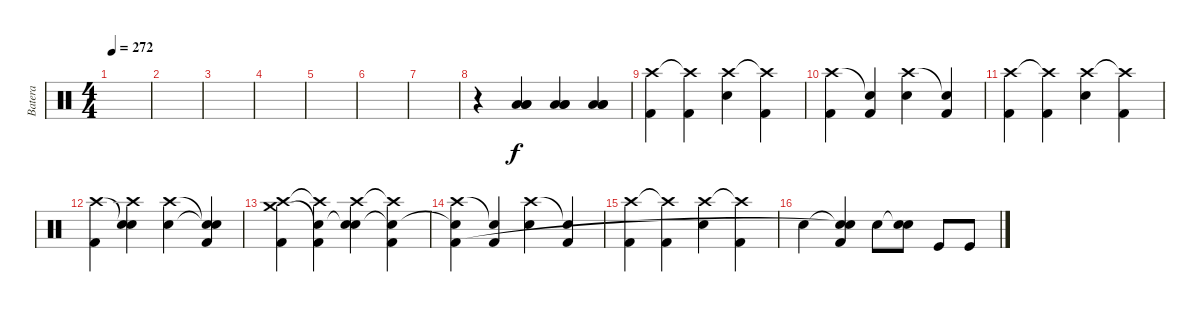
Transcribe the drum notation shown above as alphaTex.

\track ("Batera" "Batera") {instrument percussion}
\staff {score}
\articulation defaults
\ts (4 4)
\tempo 272
\clef neutral
\ks c
|
|
|
|
|
|
|
r.4 ("Low Floor Tom (hit)" "Low Tom (hit)" "Low Tom (hit)").4 ("Low Floor Tom (hit)" "Low Tom (hit)" "Low Tom (hit)").4 ("Low Floor Tom (hit)" "Low Tom (hit)" "Low Tom (hit)").4 |
("Crash high (hit)" "Kick (hit) 2").4 ("Crash high (hit)"{t} "Kick (hit) 2").4 ("Crash high (hit)" "Electric Snare (hit)").4 ("Crash high (hit)"{t} "Kick (hit) 2").4 |
("Crash high (hit)" "Kick (hit) 2").4 ("Snare (hit)"{t} "Kick (hit) 2").4 ("Crash high (hit)" "Electric Snare (hit)").4 ("Snare (hit)"{t} "Kick (hit) 2").4 |
("Crash high (hit)" "Kick (hit) 2").4 ("Crash high (hit)"{t} "Kick (hit) 2").4 ("Crash high (hit)" "Electric Snare (hit)").4 ("Crash high (hit)"{t} "Kick (hit) 2").4 |
("Crash high (hit)" "Kick (hit) 2").4 ("Snare (hit)"{t} "Crash high (hit)" "Electric Snare (hit)").4 ("Crash high (hit)" "Electric Snare (hit)").4 ("Snare (hit)"{t} "Snare (hit)"{t} "Kick (hit) 2").4 |
("Crash high (hit)" "Crash medium (hit)" "Kick (hit) 2").4 ("Crash high (hit)"{t} "Snare (hit)"{t} "Kick (hit) 2").4 ("Crash high (hit)" "Snare (hit)"{t} "Electric Snare (hit)").4 ("Crash high (hit)"{t} "Snare (hit)"{t} "Kick (hit) 2").4 |
("Crash high (hit)" "Snare (hit)"{t} "Kick (hit) 2").4 ("Snare (hit)"{t} "Kick (hit) 2").4 ("Crash high (hit)" "Electric Snare (hit)").4 ("Snare (hit)"{t} "Kick (hit) 2").4 |
("Crash high (hit)" "Kick (hit) 2").4 ("Crash high (hit)"{t} "Kick (hit) 2").4 ("Crash high (hit)" "Electric Snare (hit)").4 ("Crash high (hit)"{t} "Kick (hit) 2").4 |
"Electric Snare (hit)".4 ("Snare (hit)"{t} "Kick (hit) 2" "Snare (hit)"{t}).4 "Electric Snare (hit)".8 ("Snare (hit)"{t} "Electric Snare (hit)").8 "Kick (hit)".8 "Kick (hit)".8
